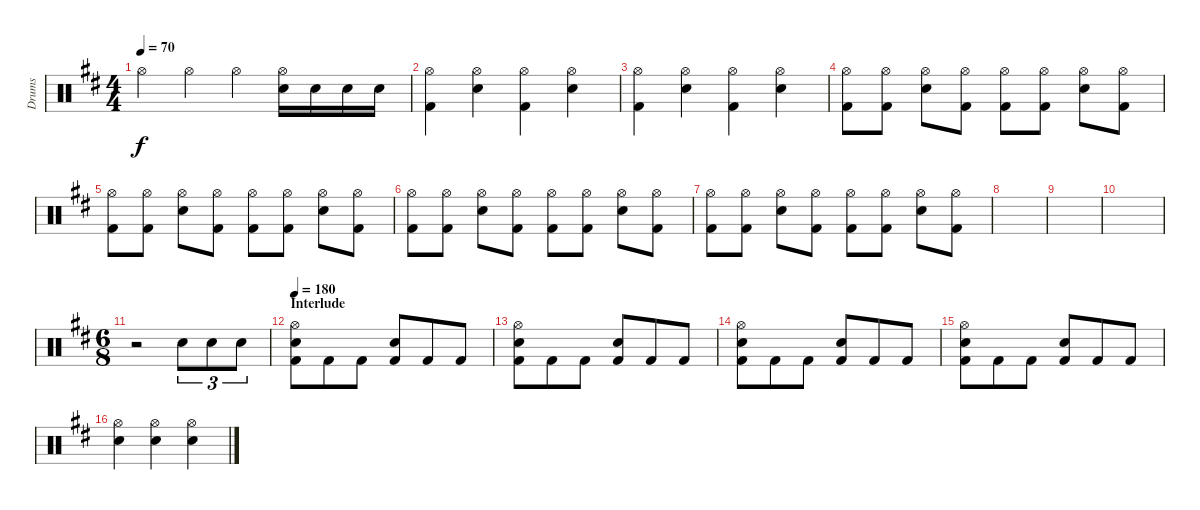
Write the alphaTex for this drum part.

\track ("Drums" "Drums") {instrument percussion}
\staff {score}
\articulation defaults
\ts (4 4)
\tempo 70
\clef neutral
\ks d "Hi-Hat (open)".4{dy f} "Hi-Hat (open)".4 "Hi-Hat (open)".4
("Hi-Hat (open)" "Snare (hit) 2").16 "Snare (hit) 2".16 "Snare (hit) 2".16 "Snare (hit) 2".16 |
("Hi-Hat (open)" "Kick (hit) 2").4 ("Hi-Hat (open)" "Snare (hit) 2").4 ("Hi-Hat (open)" "Kick (hit) 2").4 ("Hi-Hat (open)" "Snare (hit) 2").4 |
("Hi-Hat (open)" "Kick (hit) 2").4 ("Hi-Hat (open)" "Snare (hit) 2").4 ("Hi-Hat (open)" "Kick (hit) 2").4 ("Hi-Hat (open)" "Snare (hit) 2").4 |
("Hi-Hat (open)" "Kick (hit) 2").8 ("Hi-Hat (open)" "Kick (hit) 2").8 ("Hi-Hat (open)" "Snare (hit) 2").8 ("Hi-Hat (open)" "Kick (hit) 2").8 ("Hi-Hat (open)" "Kick (hit) 2").8 ("Hi-Hat (open)" "Kick (hit) 2").8 ("Hi-Hat (open)" "Snare (hit) 2").8 ("Hi-Hat (open)" "Kick (hit) 2").8 |
("Hi-Hat (open)" "Kick (hit) 2").8 ("Hi-Hat (open)" "Kick (hit) 2").8 ("Hi-Hat (open)" "Snare (hit) 2").8 ("Hi-Hat (open)" "Kick (hit) 2").8 ("Hi-Hat (open)" "Kick (hit) 2").8 ("Hi-Hat (open)" "Kick (hit) 2").8 ("Hi-Hat (open)" "Snare (hit) 2").8 ("Hi-Hat (open)" "Kick (hit) 2").8 |
("Hi-Hat (open)" "Kick (hit) 2").8 ("Hi-Hat (open)" "Kick (hit) 2").8 ("Hi-Hat (open)" "Snare (hit) 2").8 ("Hi-Hat (open)" "Kick (hit) 2").8 ("Hi-Hat (open)" "Kick (hit) 2").8 ("Hi-Hat (open)" "Kick (hit) 2").8 ("Hi-Hat (open)" "Snare (hit) 2").8 ("Hi-Hat (open)" "Kick (hit) 2").8 |
("Hi-Hat (open)" "Kick (hit) 2").8 ("Hi-Hat (open)" "Kick (hit) 2").8 ("Hi-Hat (open)" "Snare (hit) 2").8 ("Hi-Hat (open)" "Kick (hit) 2").8 ("Hi-Hat (open)" "Kick (hit) 2").8 ("Hi-Hat (open)" "Kick (hit) 2").8 ("Hi-Hat (open)" "Snare (hit) 2").8 ("Hi-Hat (open)" "Kick (hit) 2").8 |
|
|
|
\ts (6 8)
r.2 "Snare (hit) 2".8{tu (3 2)} "Snare (hit) 2".8{tu (3 2)} "Snare (hit) 2".8{tu (3 2)} |
\section ("" "Interlude")
\tempo 180
("Hi-Hat (open)" "Snare (hit) 2" "Kick (hit) 2").8 "Kick (hit) 2".8 "Kick (hit) 2".8 ("Snare (hit) 2" "Kick (hit) 2").8 "Kick (hit) 2".8 "Kick (hit) 2".8 |
("Hi-Hat (open)" "Snare (hit) 2" "Kick (hit) 2").8 "Kick (hit) 2".8 "Kick (hit) 2".8 ("Snare (hit) 2" "Kick (hit) 2").8 "Kick (hit) 2".8 "Kick (hit) 2".8 |
("Hi-Hat (open)" "Snare (hit) 2" "Kick (hit) 2").8 "Kick (hit) 2".8 "Kick (hit) 2".8 ("Snare (hit) 2" "Kick (hit) 2").8 "Kick (hit) 2".8 "Kick (hit) 2".8 |
("Hi-Hat (open)" "Snare (hit) 2" "Kick (hit) 2").8 "Kick (hit) 2".8 "Kick (hit) 2".8 ("Snare (hit) 2" "Kick (hit) 2").8 "Kick (hit) 2".8 "Kick (hit) 2".8 |
("Hi-Hat (open)" "Snare (hit) 2").4 ("Hi-Hat (open)" "Snare (hit) 2").4 ("Hi-Hat (open)" "Snare (hit) 2").4
